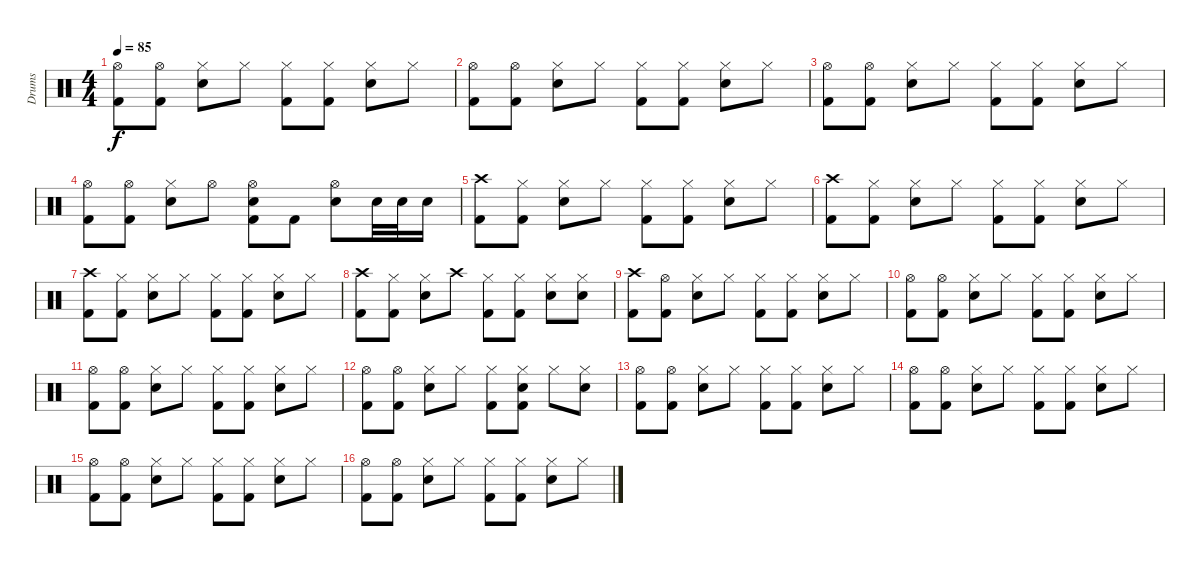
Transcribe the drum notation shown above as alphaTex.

\track ("Drums" "Drums") {instrument percussion}
\staff {score}
\articulation defaults
\ts (4 4)
\tempo 85
\clef neutral
\ks c
("Hi-Hat (open)" "Kick (hit) 2").8{dy f} ("Hi-Hat (open)" "Kick (hit) 2").8 ("Hi-Hat (closed)" "Electric Snare (hit)").8 "Hi-Hat (closed)".8 ("Hi-Hat (closed)" "Kick (hit) 2").8 ("Hi-Hat (closed)" "Kick (hit) 2").8 ("Hi-Hat (closed)" "Electric Snare (hit)").8 "Hi-Hat (closed)".8 |
("Hi-Hat (open)" "Kick (hit) 2").8 ("Hi-Hat (open)" "Kick (hit) 2").8 ("Hi-Hat (closed)" "Electric Snare (hit)").8 "Hi-Hat (closed)".8 ("Hi-Hat (closed)" "Kick (hit) 2").8 ("Hi-Hat (closed)" "Kick (hit) 2").8 ("Hi-Hat (closed)" "Electric Snare (hit)").8 "Hi-Hat (closed)".8 |
("Hi-Hat (open)" "Kick (hit) 2").8 ("Hi-Hat (open)" "Kick (hit) 2").8 ("Hi-Hat (closed)" "Electric Snare (hit)").8 "Hi-Hat (closed)".8 ("Hi-Hat (closed)" "Kick (hit) 2").8 ("Hi-Hat (closed)" "Kick (hit) 2").8 ("Hi-Hat (closed)" "Electric Snare (hit)").8 "Hi-Hat (closed)".8 |
("Hi-Hat (open)" "Kick (hit) 2").8 ("Hi-Hat (open)" "Kick (hit) 2").8 ("Hi-Hat (closed)" "Electric Snare (hit)").8 "Hi-Hat (open)".8 ("Hi-Hat (open)" "Electric Snare (hit)" "Kick (hit) 2").8 "Kick (hit) 2".8 ("Hi-Hat (open)" "Electric Snare (hit)").8 "Electric Snare (hit)".32 "Electric Snare (hit)".32 "Electric Snare (hit)".16 |
("Crash high (hit)" "Kick (hit) 2").8 ("Hi-Hat (closed)" "Kick (hit) 2").8 ("Hi-Hat (closed)" "Electric Snare (hit)").8 "Hi-Hat (closed)".8 ("Hi-Hat (closed)" "Kick (hit) 2").8 ("Hi-Hat (closed)" "Kick (hit) 2").8 ("Hi-Hat (closed)" "Electric Snare (hit)").8 "Hi-Hat (closed)".8 |
("Crash high (hit)" "Kick (hit) 2").8 ("Hi-Hat (closed)" "Kick (hit) 2").8 ("Hi-Hat (closed)" "Electric Snare (hit)").8 "Hi-Hat (closed)".8 ("Hi-Hat (closed)" "Kick (hit) 2").8 ("Hi-Hat (closed)" "Kick (hit) 2").8 ("Hi-Hat (closed)" "Electric Snare (hit)").8 "Hi-Hat (closed)".8 |
("Crash high (hit)" "Kick (hit) 2").8 ("Hi-Hat (closed)" "Kick (hit) 2").8 ("Hi-Hat (closed)" "Electric Snare (hit)").8 "Hi-Hat (closed)".8 ("Hi-Hat (closed)" "Kick (hit) 2").8 ("Hi-Hat (closed)" "Kick (hit) 2").8 ("Hi-Hat (closed)" "Electric Snare (hit)").8 "Hi-Hat (closed)".8 |
("Crash high (hit)" "Kick (hit) 2").8 ("Hi-Hat (closed)" "Kick (hit) 2").8 ("Hi-Hat (closed)" "Electric Snare (hit)").8 "Crash high (hit)".8 ("Hi-Hat (closed)" "Kick (hit) 2").8 ("Hi-Hat (closed)" "Kick (hit) 2").8 ("Hi-Hat (closed)" "Electric Snare (hit)").8 ("Hi-Hat (closed)" "Electric Snare (hit)").8 |
("Crash high (hit)" "Kick (hit) 2").8 ("Hi-Hat (open)" "Kick (hit) 2").8 ("Hi-Hat (closed)" "Electric Snare (hit)").8 "Hi-Hat (closed)".8 ("Hi-Hat (closed)" "Kick (hit) 2").8 ("Hi-Hat (closed)" "Kick (hit) 2").8 ("Hi-Hat (closed)" "Electric Snare (hit)").8 "Hi-Hat (closed)".8 |
("Hi-Hat (open)" "Kick (hit) 2").8 ("Hi-Hat (open)" "Kick (hit) 2").8 ("Hi-Hat (closed)" "Electric Snare (hit)").8 "Hi-Hat (closed)".8 ("Hi-Hat (closed)" "Kick (hit) 2").8 ("Hi-Hat (closed)" "Kick (hit) 2").8 ("Hi-Hat (closed)" "Electric Snare (hit)").8 "Hi-Hat (closed)".8 |
("Hi-Hat (open)" "Kick (hit) 2").8 ("Hi-Hat (open)" "Kick (hit) 2").8 ("Hi-Hat (closed)" "Electric Snare (hit)").8 "Hi-Hat (closed)".8 ("Hi-Hat (closed)" "Kick (hit) 2").8 ("Hi-Hat (closed)" "Kick (hit) 2").8 ("Hi-Hat (closed)" "Electric Snare (hit)").8 "Hi-Hat (closed)".8 |
("Hi-Hat (open)" "Kick (hit) 2").8 ("Hi-Hat (open)" "Kick (hit) 2").8 ("Hi-Hat (closed)" "Electric Snare (hit)").8 "Hi-Hat (closed)".8 ("Hi-Hat (closed)" "Kick (hit) 2").8 ("Hi-Hat (closed)" "Electric Snare (hit)" "Kick (hit) 2").8 "Hi-Hat (closed)".8 ("Hi-Hat (closed)" "Electric Snare (hit)").8 |
("Hi-Hat (open)" "Kick (hit) 2").8 ("Hi-Hat (open)" "Kick (hit) 2").8 ("Hi-Hat (closed)" "Electric Snare (hit)").8 "Hi-Hat (closed)".8 ("Hi-Hat (closed)" "Kick (hit) 2").8 ("Hi-Hat (closed)" "Kick (hit) 2").8 ("Hi-Hat (closed)" "Electric Snare (hit)").8 "Hi-Hat (closed)".8 |
("Hi-Hat (open)" "Kick (hit) 2").8 ("Hi-Hat (open)" "Kick (hit) 2").8 ("Hi-Hat (closed)" "Electric Snare (hit)").8 "Hi-Hat (closed)".8 ("Hi-Hat (closed)" "Kick (hit) 2").8 ("Hi-Hat (closed)" "Kick (hit) 2").8 ("Hi-Hat (closed)" "Electric Snare (hit)").8 "Hi-Hat (closed)".8 |
("Hi-Hat (open)" "Kick (hit) 2").8 ("Hi-Hat (open)" "Kick (hit) 2").8 ("Hi-Hat (closed)" "Electric Snare (hit)").8 "Hi-Hat (closed)".8 ("Hi-Hat (closed)" "Kick (hit) 2").8 ("Hi-Hat (closed)" "Kick (hit) 2").8 ("Hi-Hat (closed)" "Electric Snare (hit)").8 "Hi-Hat (closed)".8 |
("Hi-Hat (open)" "Kick (hit) 2").8 ("Hi-Hat (open)" "Kick (hit) 2").8 ("Hi-Hat (closed)" "Electric Snare (hit)").8 "Hi-Hat (closed)".8 ("Hi-Hat (closed)" "Kick (hit) 2").8 ("Hi-Hat (closed)" "Kick (hit) 2").8 ("Hi-Hat (closed)" "Electric Snare (hit)").8 "Hi-Hat (closed)".8
